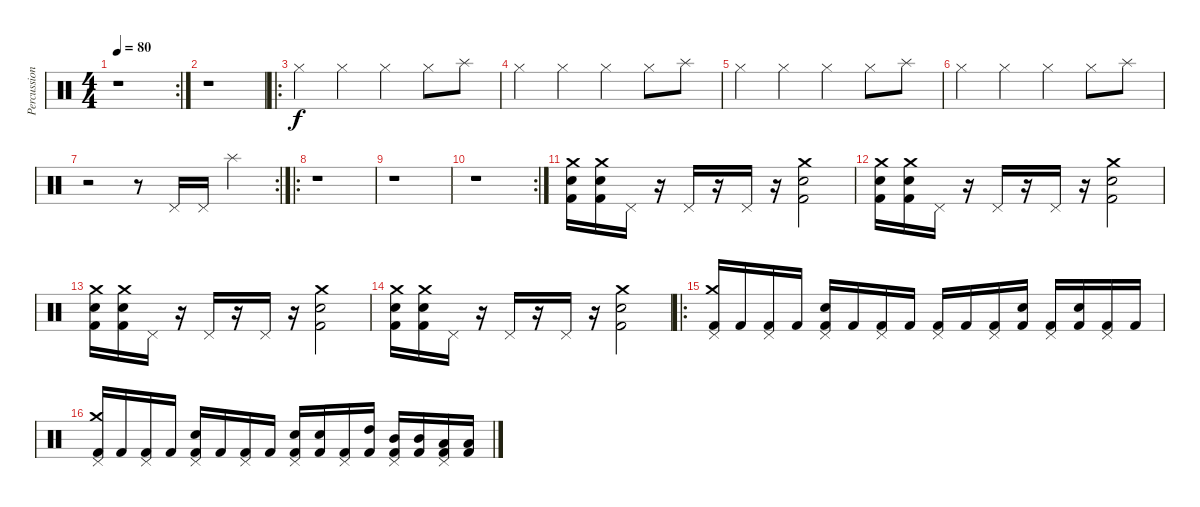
\track ("Percussion" "Percussion") {instrument percussion}
\staff {score}
\articulation defaults
\rc 2
\ts (4 4)
\tempo 80
\clef neutral
\ks c
r.1{dy f} |
r.1 |
\ro "Hi-Hat (closed)".4 "Hi-Hat (closed)".4 "Hi-Hat (closed)".4 "Hi-Hat (closed)".8 "Splash (hit)".8
|
"Hi-Hat (closed)".4 "Hi-Hat (closed)".4 "Hi-Hat (closed)".4 "Hi-Hat (closed)".8 "Splash (hit)".8 |
"Hi-Hat (closed)".4 "Hi-Hat (closed)".4 "Hi-Hat (closed)".4 "Hi-Hat (closed)".8 "Splash (hit)".8 |
"Hi-Hat (closed)".4 "Hi-Hat (closed)".4 "Hi-Hat (closed)".4 "Hi-Hat (closed)".8 "Splash (hit)".8 |
\rc 2
r.2 r.8 "Pedal Hi-Hat (hit)".16 "Pedal Hi-Hat (hit)".16 "Splash (hit)".4 |
\ro
r.1 |
r.1 |
\rc 2
r.1 |
("Crash medium (hit)" "Snare (hit) 2" "Kick (hit) 2").16{volume 11} ("Crash medium (hit)" "Snare (hit) 2" "Kick (hit) 2").16 "Pedal Hi-Hat (hit)".16 r.16 "Pedal Hi-Hat (hit)".16 r.16 "Pedal Hi-Hat (hit)".16 r.16 ("Crash medium (hit)" "Snare (hit) 2" "Kick (hit) 2").2 |
("Crash medium (hit)" "Snare (hit) 2" "Kick (hit) 2").16 ("Crash medium (hit)" "Snare (hit) 2" "Kick (hit) 2").16 "Pedal Hi-Hat (hit)".16 r.16 "Pedal Hi-Hat (hit)".16 r.16 "Pedal Hi-Hat (hit)".16 r.16 ("Crash medium (hit)" "Snare (hit) 2" "Kick (hit) 2").2 |
("Crash medium (hit)" "Snare (hit) 2" "Kick (hit) 2").16 ("Crash medium (hit)" "Snare (hit) 2" "Kick (hit) 2").16 "Pedal Hi-Hat (hit)".16 r.16 "Pedal Hi-Hat (hit)".16 r.16 "Pedal Hi-Hat (hit)".16 r.16 ("Crash medium (hit)" "Snare (hit) 2" "Kick (hit) 2").2 |
("Crash medium (hit)" "Snare (hit) 2" "Kick (hit) 2").16 ("Crash medium (hit)" "Snare (hit) 2" "Kick (hit) 2").16 "Pedal Hi-Hat (hit)".16 r.16 "Pedal Hi-Hat (hit)".16 r.16 "Pedal Hi-Hat (hit)".16 r.16 ("Crash medium (hit)" "Snare (hit) 2" "Kick (hit) 2").2 |
\ro
("Pedal Hi-Hat (hit)" "Crash medium (hit)" "Kick (hit) 2").16{volume 16} "Kick (hit) 2".16 ("Pedal Hi-Hat (hit)" "Kick (hit) 2").16 "Kick (hit) 2".16 ("Pedal Hi-Hat (hit)" "Electric Snare (hit)" "Kick (hit) 2").16 "Kick (hit) 2".16 ("Pedal Hi-Hat (hit)" "Kick (hit) 2").16 "Kick (hit) 2".16 ("Pedal Hi-Hat (hit)" "Kick (hit) 2").16 "Kick (hit) 2".16 ("Pedal Hi-Hat (hit)" "Kick (hit) 2").16 ("Snare (hit) 2" "Kick (hit) 2").16 ("Pedal Hi-Hat (hit)" "Kick (hit) 2").16 ("Snare (hit) 2" "Kick (hit) 2").16 ("Pedal Hi-Hat (hit)" "Kick (hit) 2").16 "Kick (hit) 2".16 |
("Pedal Hi-Hat (hit)" "Crash medium (hit)" "Kick (hit) 2").16 "Kick (hit) 2".16 ("Pedal Hi-Hat (hit)" "Kick (hit) 2").16 "Kick (hit) 2".16 ("Pedal Hi-Hat (hit)" "Electric Snare (hit)" "Kick (hit) 2").16 "Kick (hit) 2".16 ("Pedal Hi-Hat (hit)" "Kick (hit) 2").16 "Kick (hit) 2".16 ("Pedal Hi-Hat (hit)" "Snare (hit) 2" "Kick (hit) 2").16 ("Snare (hit) 2" "Kick (hit) 2").16 ("Pedal Hi-Hat (hit)" "Kick (hit) 2").16 ("High Tom (hit)" "Kick (hit) 2").16 ("Pedal Hi-Hat (hit)" "Mid Tom (hit)" "Kick (hit) 2").16 ("Mid Tom (hit)" "Kick (hit) 2").16 ("Pedal Hi-Hat (hit)" "Low Tom (hit)" "Kick (hit) 2").16 ("Low Floor Tom (hit)" "Kick (hit) 2").16
